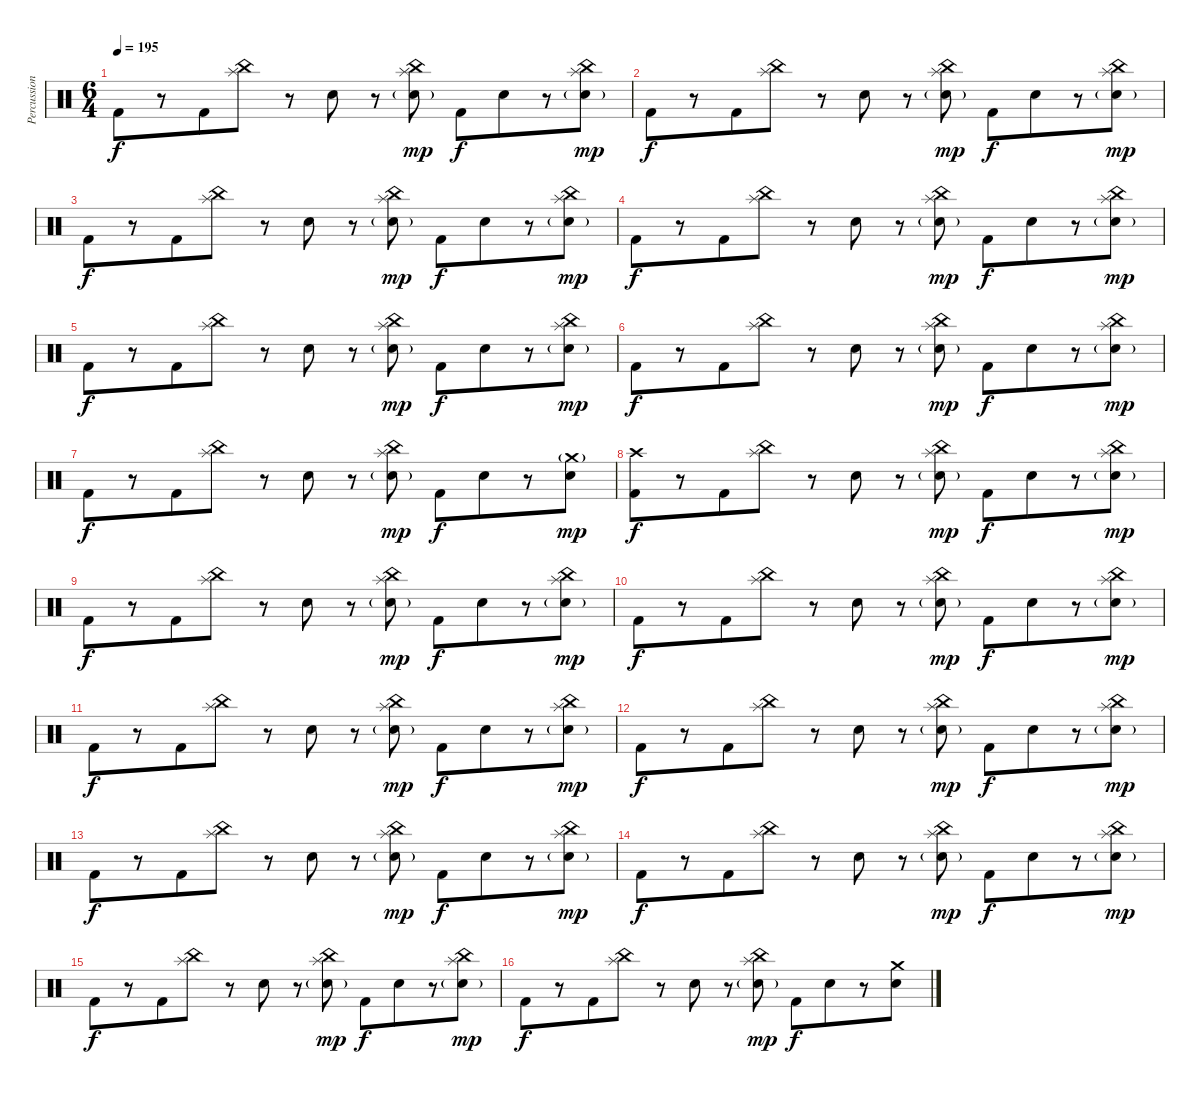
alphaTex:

\track ("Percussion" "Percussion") {instrument percussion bank 237}
\staff {score}
\articulation defaults
\ts (6 4)
\tempo 195
\clef neutral
\ks c "Kick (hit) 2".8{dy f beam merge}
r.8{beam merge} "Kick (hit) 2".8 ("Splash (hit)" "China (hit)").8 r.8 "Electric Snare (hit)".8 r.8{beam merge} ("Splash (hit)" "China (hit)" "Electric Snare (hit)"{g}).8{dy mp} "Kick (hit) 2".8{dy f} "Electric Snare (hit)".8{beam merge} r.8{beam merge} ("Splash (hit)" "China (hit)" "Electric Snare (hit)"{g}).8{dy mp} |
"Kick (hit) 2".8{dy f beam merge} r.8{beam merge} "Kick (hit) 2".8 ("Splash (hit)" "China (hit)").8 r.8 "Electric Snare (hit)".8 r.8{beam merge} ("Splash (hit)" "China (hit)" "Electric Snare (hit)"{g}).8{dy mp} "Kick (hit) 2".8{dy f} "Electric Snare (hit)".8{beam merge} r.8{beam merge} ("Splash (hit)" "China (hit)" "Electric Snare (hit)"{g}).8{dy mp} |
"Kick (hit) 2".8{dy f beam merge} r.8{beam merge} "Kick (hit) 2".8 ("Splash (hit)" "China (hit)").8 r.8 "Electric Snare (hit)".8 r.8{beam merge} ("Splash (hit)" "China (hit)" "Electric Snare (hit)"{g}).8{dy mp} "Kick (hit) 2".8{dy f} "Electric Snare (hit)".8{beam merge} r.8{beam merge} ("Splash (hit)" "China (hit)" "Electric Snare (hit)"{g}).8{dy mp} |
"Kick (hit) 2".8{dy f beam merge} r.8{beam merge} "Kick (hit) 2".8 ("Splash (hit)" "China (hit)").8 r.8 "Electric Snare (hit)".8 r.8{beam merge} ("Splash (hit)" "China (hit)" "Electric Snare (hit)"{g}).8{dy mp} "Kick (hit) 2".8{dy f} "Electric Snare (hit)".8{beam merge} r.8{beam merge} ("Splash (hit)" "China (hit)" "Electric Snare (hit)"{g}).8{dy mp} |
"Kick (hit) 2".8{dy f beam merge} r.8{beam merge} "Kick (hit) 2".8 ("Splash (hit)" "China (hit)").8 r.8 "Electric Snare (hit)".8 r.8{beam merge} ("Splash (hit)" "China (hit)" "Electric Snare (hit)"{g}).8{dy mp} "Kick (hit) 2".8{dy f} "Electric Snare (hit)".8{beam merge} r.8{beam merge} ("Splash (hit)" "China (hit)" "Electric Snare (hit)"{g}).8{dy mp} |
"Kick (hit) 2".8{dy f beam merge} r.8{beam merge} "Kick (hit) 2".8 ("Splash (hit)" "China (hit)").8 r.8 "Electric Snare (hit)".8 r.8{beam merge} ("Splash (hit)" "China (hit)" "Electric Snare (hit)"{g}).8{dy mp} "Kick (hit) 2".8{dy f} "Electric Snare (hit)".8{beam merge} r.8{beam merge} ("Splash (hit)" "China (hit)" "Electric Snare (hit)"{g}).8{dy mp} |
"Kick (hit) 2".8{dy f beam merge} r.8{beam merge} "Kick (hit) 2".8 ("Splash (hit)" "China (hit)").8 r.8 "Electric Snare (hit)".8 r.8{beam merge} ("Splash (hit)" "China (hit)" "Electric Snare (hit)"{g}).8{dy mp} "Kick (hit) 2".8{dy f} "Electric Snare (hit)".8{beam merge} r.8{beam merge} ("Crash medium (hit)"{g} "Electric Snare (hit)").8{dy mp} |
("Crash high (hit)" "Kick (hit) 2").8{dy f beam merge} r.8{beam merge} "Kick (hit) 2".8 ("Splash (hit)" "China (hit)").8 r.8 "Electric Snare (hit)".8 r.8 ("Splash (hit)" "China (hit)" "Electric Snare (hit)"{g}).8{dy mp} "Kick (hit) 2".8{dy f} "Electric Snare (hit)".8{beam merge} r.8 ("Splash (hit)" "China (hit)" "Electric Snare (hit)"{g}).8{dy mp} |
"Kick (hit) 2".8{dy f beam merge} r.8{beam merge} "Kick (hit) 2".8 ("Splash (hit)" "China (hit)").8 r.8 "Electric Snare (hit)".8 r.8{beam merge} ("Splash (hit)" "China (hit)" "Electric Snare (hit)"{g}).8{dy mp} "Kick (hit) 2".8{dy f} "Electric Snare (hit)".8{beam merge} r.8{beam merge} ("Splash (hit)" "China (hit)" "Electric Snare (hit)"{g}).8{dy mp} |
"Kick (hit) 2".8{dy f beam merge} r.8{beam merge} "Kick (hit) 2".8 ("Splash (hit)" "China (hit)").8 r.8 "Electric Snare (hit)".8 r.8{beam merge} ("Splash (hit)" "China (hit)" "Electric Snare (hit)"{g}).8{dy mp} "Kick (hit) 2".8{dy f} "Electric Snare (hit)".8{beam merge} r.8{beam merge} ("Splash (hit)" "China (hit)" "Electric Snare (hit)"{g}).8{dy mp} |
"Kick (hit) 2".8{dy f volume 8 beam merge} r.8{beam merge} "Kick (hit) 2".8 ("Splash (hit)" "China (hit)").8 r.8 "Electric Snare (hit)".8 r.8{beam merge} ("Splash (hit)" "China (hit)" "Electric Snare (hit)"{g}).8{dy mp} "Kick (hit) 2".8{dy f} "Electric Snare (hit)".8{beam merge} r.8{beam merge} ("Splash (hit)" "China (hit)" "Electric Snare (hit)"{g}).8{dy mp} |
"Kick (hit) 2".8{dy f beam merge} r.8{beam merge} "Kick (hit) 2".8 ("Splash (hit)" "China (hit)").8 r.8 "Electric Snare (hit)".8 r.8{beam merge} ("Splash (hit)" "China (hit)" "Electric Snare (hit)"{g}).8{dy mp} "Kick (hit) 2".8{dy f} "Electric Snare (hit)".8{beam merge} r.8{beam merge} ("Splash (hit)" "China (hit)" "Electric Snare (hit)"{g}).8{dy mp} |
"Kick (hit) 2".8{dy f beam merge} r.8{beam merge} "Kick (hit) 2".8 ("Splash (hit)" "China (hit)").8 r.8 "Electric Snare (hit)".8 r.8{beam merge} ("Splash (hit)" "China (hit)" "Electric Snare (hit)"{g}).8{dy mp} "Kick (hit) 2".8{dy f} "Electric Snare (hit)".8{beam merge} r.8{beam merge} ("Splash (hit)" "China (hit)" "Electric Snare (hit)"{g}).8{dy mp} |
"Kick (hit) 2".8{dy f beam merge} r.8{beam merge} "Kick (hit) 2".8 ("Splash (hit)" "China (hit)").8 r.8 "Electric Snare (hit)".8 r.8{beam merge} ("Splash (hit)" "China (hit)" "Electric Snare (hit)"{g}).8{dy mp} "Kick (hit) 2".8{dy f} "Electric Snare (hit)".8{beam merge} r.8{beam merge} ("Splash (hit)" "China (hit)" "Electric Snare (hit)"{g}).8{dy mp} |
"Kick (hit) 2".8{dy f beam merge} r.8{beam merge} "Kick (hit) 2".8 ("Splash (hit)" "China (hit)").8 r.8 "Electric Snare (hit)".8 r.8{beam merge} ("Splash (hit)" "China (hit)" "Electric Snare (hit)"{g}).8{dy mp} "Kick (hit) 2".8{dy f} "Electric Snare (hit)".8{beam merge} r.8{beam merge} ("Splash (hit)" "China (hit)" "Electric Snare (hit)"{g}).8{dy mp} |
"Kick (hit) 2".8{dy f beam merge} r.8{beam merge} "Kick (hit) 2".8 ("Splash (hit)" "China (hit)").8 r.8 "Electric Snare (hit)".8 r.8{beam merge} ("Splash (hit)" "China (hit)" "Electric Snare (hit)"{g}).8{dy mp} "Kick (hit) 2".8{dy f} "Electric Snare (hit)".8{beam merge} r.8{beam merge} ("Crash medium (hit)" "Electric Snare (hit)").8
